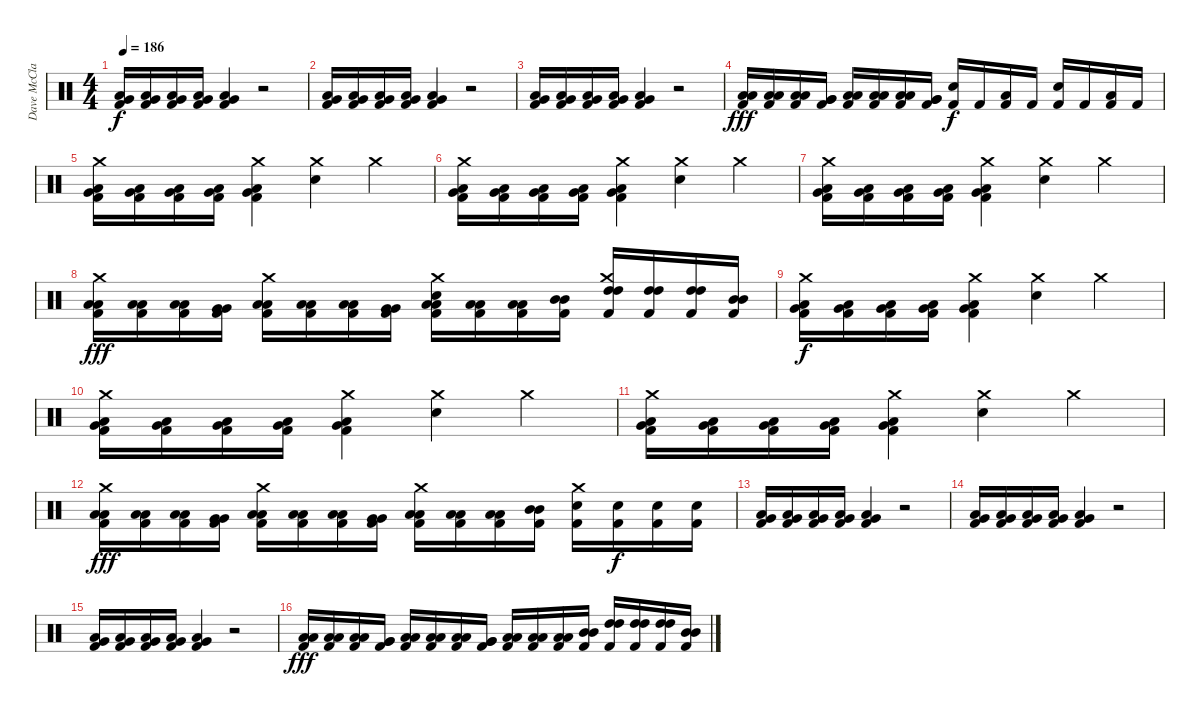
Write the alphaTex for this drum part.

\track ("Dave McClain" "Dave McCla") {instrument percussion}
\staff {score}
\articulation defaults
\ts (4 4)
\tempo 186
\clef neutral
\ks c
("Very Low Tom (hit)" "Low Floor Tom (hit)" "Kick (hit) 2").16{dy f} ("Very Low Tom (hit)" "Low Floor Tom (hit)" "Kick (hit) 2").16 ("Very Low Tom (hit)" "Low Floor Tom (hit)" "Kick (hit) 2").16 ("Very Low Tom (hit)" "Low Floor Tom (hit)" "Kick (hit) 2").16 ("Very Low Tom (hit)" "Low Floor Tom (hit)" "Kick (hit) 2").4 r.2 |
("Very Low Tom (hit)" "Low Floor Tom (hit)" "Kick (hit) 2").16 ("Very Low Tom (hit)" "Low Floor Tom (hit)" "Kick (hit) 2").16 ("Very Low Tom (hit)" "Low Floor Tom (hit)" "Kick (hit) 2").16 ("Very Low Tom (hit)" "Low Floor Tom (hit)" "Kick (hit) 2").16 ("Very Low Tom (hit)" "Low Floor Tom (hit)" "Kick (hit) 2").4 r.2 |
("Very Low Tom (hit)" "Low Floor Tom (hit)" "Kick (hit) 2").16 ("Very Low Tom (hit)" "Low Floor Tom (hit)" "Kick (hit) 2").16 ("Very Low Tom (hit)" "Low Floor Tom (hit)" "Kick (hit) 2").16 ("Very Low Tom (hit)" "Low Floor Tom (hit)" "Kick (hit) 2").16 ("Very Low Tom (hit)" "Low Floor Tom (hit)" "Kick (hit) 2").4 r.2 |
("Low Tom (hit)" "Low Tom (hit)" "Kick (hit) 2").16{dy fff} ("Low Tom (hit)" "Low Tom (hit)" "Kick (hit) 2").16 ("Low Tom (hit)" "Low Tom (hit)" "Kick (hit) 2").16 ("Very Low Tom (hit)" "Very Low Tom (hit)" "Kick (hit) 2").16 ("Low Floor Tom (hit)" "Low Floor Tom (hit)" "Kick (hit) 2").16 ("Low Floor Tom (hit)" "Low Floor Tom (hit)" "Kick (hit) 2").16 ("Low Floor Tom (hit)" "Low Floor Tom (hit)" "Kick (hit) 2").16 ("Very Low Tom (hit)" "Very Low Tom (hit)" "Kick (hit) 2").16 ("Snare (hit) 2" "Kick (hit) 2").16{dy f} "Kick (hit) 2".16 ("Low Tom (hit)" "Kick (hit) 2").16 "Kick (hit) 2".16 ("Snare (hit) 2" "Kick (hit) 2").16 "Kick (hit) 2".16 ("Low Tom (hit)" "Kick (hit) 2").16 "Kick (hit) 2".16 |
("Crash medium (hit)" "Very Low Tom (hit)" "Low Floor Tom (hit)" "Kick (hit) 2").16 ("Very Low Tom (hit)" "Low Floor Tom (hit)" "Kick (hit) 2").16 ("Very Low Tom (hit)" "Low Floor Tom (hit)" "Kick (hit) 2").16 ("Very Low Tom (hit)" "Low Floor Tom (hit)" "Kick (hit) 2").16 ("Crash medium (hit)" "Very Low Tom (hit)" "Low Floor Tom (hit)" "Kick (hit) 2").4 ("Crash medium (hit)" "Snare (hit) 2").4 "Crash medium (hit)".4 |
("Crash medium (hit)" "Very Low Tom (hit)" "Low Floor Tom (hit)" "Kick (hit) 2").16 ("Very Low Tom (hit)" "Low Floor Tom (hit)" "Kick (hit) 2").16 ("Very Low Tom (hit)" "Low Floor Tom (hit)" "Kick (hit) 2").16 ("Very Low Tom (hit)" "Low Floor Tom (hit)" "Kick (hit) 2").16 ("Crash medium (hit)" "Very Low Tom (hit)" "Low Floor Tom (hit)" "Kick (hit) 2").4 ("Crash medium (hit)" "Snare (hit) 2").4 "Crash medium (hit)".4 |
("Crash medium (hit)" "Very Low Tom (hit)" "Low Floor Tom (hit)" "Kick (hit) 2").16 ("Very Low Tom (hit)" "Low Floor Tom (hit)" "Kick (hit) 2").16 ("Very Low Tom (hit)" "Low Floor Tom (hit)" "Kick (hit) 2").16 ("Very Low Tom (hit)" "Low Floor Tom (hit)" "Kick (hit) 2").16 ("Crash medium (hit)" "Very Low Tom (hit)" "Low Floor Tom (hit)" "Kick (hit) 2").4 ("Crash medium (hit)" "Snare (hit) 2").4 "Crash medium (hit)".4 |
("Crash medium (hit)" "Low Tom (hit)" "Low Tom (hit)" "Kick (hit) 2").16{dy fff} ("Low Tom (hit)" "Low Tom (hit)" "Kick (hit) 2").16 ("Low Tom (hit)" "Low Tom (hit)" "Kick (hit) 2").16 ("Very Low Tom (hit)" "Very Low Tom (hit)" "Kick (hit) 2").16 ("Crash medium (hit)" "Low Floor Tom (hit)" "Low Floor Tom (hit)" "Kick (hit) 2").16 ("Low Floor Tom (hit)" "Low Floor Tom (hit)" "Kick (hit) 2").16 ("Low Floor Tom (hit)" "Low Floor Tom (hit)" "Kick (hit) 2").16 ("Very Low Tom (hit)" "Very Low Tom (hit)" "Kick (hit) 2").16 ("Snare (hit) 2" "Crash medium (hit)" "Low Tom (hit)" "Low Tom (hit)" "Kick (hit) 2").16 ("Low Tom (hit)" "Low Tom (hit)" "Kick (hit) 2").16 ("Low Tom (hit)" "Low Tom (hit)" "Kick (hit) 2").16 ("Mid Tom (hit)" "Mid Tom (hit)" "Kick (hit) 2").16 ("Crash medium (hit)" "High Tom (hit)" "High Tom (hit)" "Kick (hit) 2").16 ("High Tom (hit)" "High Tom (hit)" "Kick (hit) 2").16 ("High Tom (hit)" "High Tom (hit)" "Kick (hit) 2").16 ("Mid Tom (hit)" "Mid Tom (hit)" "Kick (hit) 2").16 |
("Crash medium (hit)" "Very Low Tom (hit)" "Low Floor Tom (hit)" "Kick (hit) 2").16{dy f} ("Very Low Tom (hit)" "Low Floor Tom (hit)" "Kick (hit) 2").16 ("Very Low Tom (hit)" "Low Floor Tom (hit)" "Kick (hit) 2").16 ("Very Low Tom (hit)" "Low Floor Tom (hit)" "Kick (hit) 2").16 ("Crash medium (hit)" "Very Low Tom (hit)" "Low Floor Tom (hit)" "Kick (hit) 2").4 ("Crash medium (hit)" "Snare (hit) 2").4 "Crash medium (hit)".4 |
("Crash medium (hit)" "Very Low Tom (hit)" "Low Floor Tom (hit)" "Kick (hit) 2").16 ("Very Low Tom (hit)" "Low Floor Tom (hit)" "Kick (hit) 2").16 ("Very Low Tom (hit)" "Low Floor Tom (hit)" "Kick (hit) 2").16 ("Very Low Tom (hit)" "Low Floor Tom (hit)" "Kick (hit) 2").16 ("Crash medium (hit)" "Very Low Tom (hit)" "Low Floor Tom (hit)" "Kick (hit) 2").4 ("Crash medium (hit)" "Snare (hit) 2").4 "Crash medium (hit)".4 |
("Crash medium (hit)" "Very Low Tom (hit)" "Low Floor Tom (hit)" "Kick (hit) 2").16 ("Very Low Tom (hit)" "Low Floor Tom (hit)" "Kick (hit) 2").16 ("Very Low Tom (hit)" "Low Floor Tom (hit)" "Kick (hit) 2").16 ("Very Low Tom (hit)" "Low Floor Tom (hit)" "Kick (hit) 2").16 ("Crash medium (hit)" "Very Low Tom (hit)" "Low Floor Tom (hit)" "Kick (hit) 2").4 ("Crash medium (hit)" "Snare (hit) 2").4 "Crash medium (hit)".4 |
("Crash medium (hit)" "Low Tom (hit)" "Low Tom (hit)" "Kick (hit) 2").16{dy fff} ("Low Tom (hit)" "Low Tom (hit)" "Kick (hit) 2").16 ("Low Tom (hit)" "Low Tom (hit)" "Kick (hit) 2").16 ("Very Low Tom (hit)" "Very Low Tom (hit)" "Kick (hit) 2").16 ("Crash medium (hit)" "Low Floor Tom (hit)" "Low Floor Tom (hit)" "Kick (hit) 2").16 ("Low Floor Tom (hit)" "Low Floor Tom (hit)" "Kick (hit) 2").16 ("Low Floor Tom (hit)" "Low Floor Tom (hit)" "Kick (hit) 2").16 ("Very Low Tom (hit)" "Very Low Tom (hit)" "Kick (hit) 2").16 ("Crash medium (hit)" "Low Tom (hit)" "Low Tom (hit)" "Kick (hit) 2").16 ("Low Tom (hit)" "Low Tom (hit)" "Kick (hit) 2").16 ("Low Tom (hit)" "Low Tom (hit)" "Kick (hit) 2").16 ("Mid Tom (hit)" "Mid Tom (hit)" "Kick (hit) 2").16 ("Crash medium (hit)" "Snare (hit) 2" "Kick (hit) 2").16 ("Snare (hit) 2" "Kick (hit) 2").16{dy f} ("Snare (hit) 2" "Kick (hit) 2").16 ("Snare (hit) 2" "Kick (hit) 2").16 |
("Very Low Tom (hit)" "Low Floor Tom (hit)" "Kick (hit) 2").16 ("Very Low Tom (hit)" "Low Floor Tom (hit)" "Kick (hit) 2").16 ("Very Low Tom (hit)" "Low Floor Tom (hit)" "Kick (hit) 2").16 ("Very Low Tom (hit)" "Low Floor Tom (hit)" "Kick (hit) 2").16 ("Very Low Tom (hit)" "Low Floor Tom (hit)" "Kick (hit) 2").4 r.2 |
("Very Low Tom (hit)" "Low Floor Tom (hit)" "Kick (hit) 2").16 ("Very Low Tom (hit)" "Low Floor Tom (hit)" "Kick (hit) 2").16 ("Very Low Tom (hit)" "Low Floor Tom (hit)" "Kick (hit) 2").16 ("Very Low Tom (hit)" "Low Floor Tom (hit)" "Kick (hit) 2").16 ("Very Low Tom (hit)" "Low Floor Tom (hit)" "Kick (hit) 2").4 r.2 |
("Very Low Tom (hit)" "Low Floor Tom (hit)" "Kick (hit) 2").16 ("Very Low Tom (hit)" "Low Floor Tom (hit)" "Kick (hit) 2").16 ("Very Low Tom (hit)" "Low Floor Tom (hit)" "Kick (hit) 2").16 ("Very Low Tom (hit)" "Low Floor Tom (hit)" "Kick (hit) 2").16 ("Very Low Tom (hit)" "Low Floor Tom (hit)" "Kick (hit) 2").4 r.2 |
("Low Tom (hit)" "Low Tom (hit)" "Kick (hit) 2").16{dy fff} ("Low Tom (hit)" "Low Tom (hit)" "Kick (hit) 2").16 ("Low Tom (hit)" "Low Tom (hit)" "Kick (hit) 2").16 ("Very Low Tom (hit)" "Very Low Tom (hit)" "Kick (hit) 2").16 ("Low Floor Tom (hit)" "Low Floor Tom (hit)" "Kick (hit) 2").16 ("Low Floor Tom (hit)" "Low Floor Tom (hit)" "Kick (hit) 2").16 ("Low Floor Tom (hit)" "Low Floor Tom (hit)" "Kick (hit) 2").16 ("Very Low Tom (hit)" "Very Low Tom (hit)" "Kick (hit) 2").16 ("Low Tom (hit)" "Low Tom (hit)" "Kick (hit) 2").16 ("Low Tom (hit)" "Low Tom (hit)" "Kick (hit) 2").16 ("Low Tom (hit)" "Low Tom (hit)" "Kick (hit) 2").16 ("Mid Tom (hit)" "Mid Tom (hit)" "Kick (hit) 2").16 ("High Tom (hit)" "High Tom (hit)" "Kick (hit) 2").16 ("High Tom (hit)" "High Tom (hit)" "Kick (hit) 2").16 ("High Tom (hit)" "High Tom (hit)" "Kick (hit) 2").16 ("Mid Tom (hit)" "Mid Tom (hit)" "Kick (hit) 2").16
